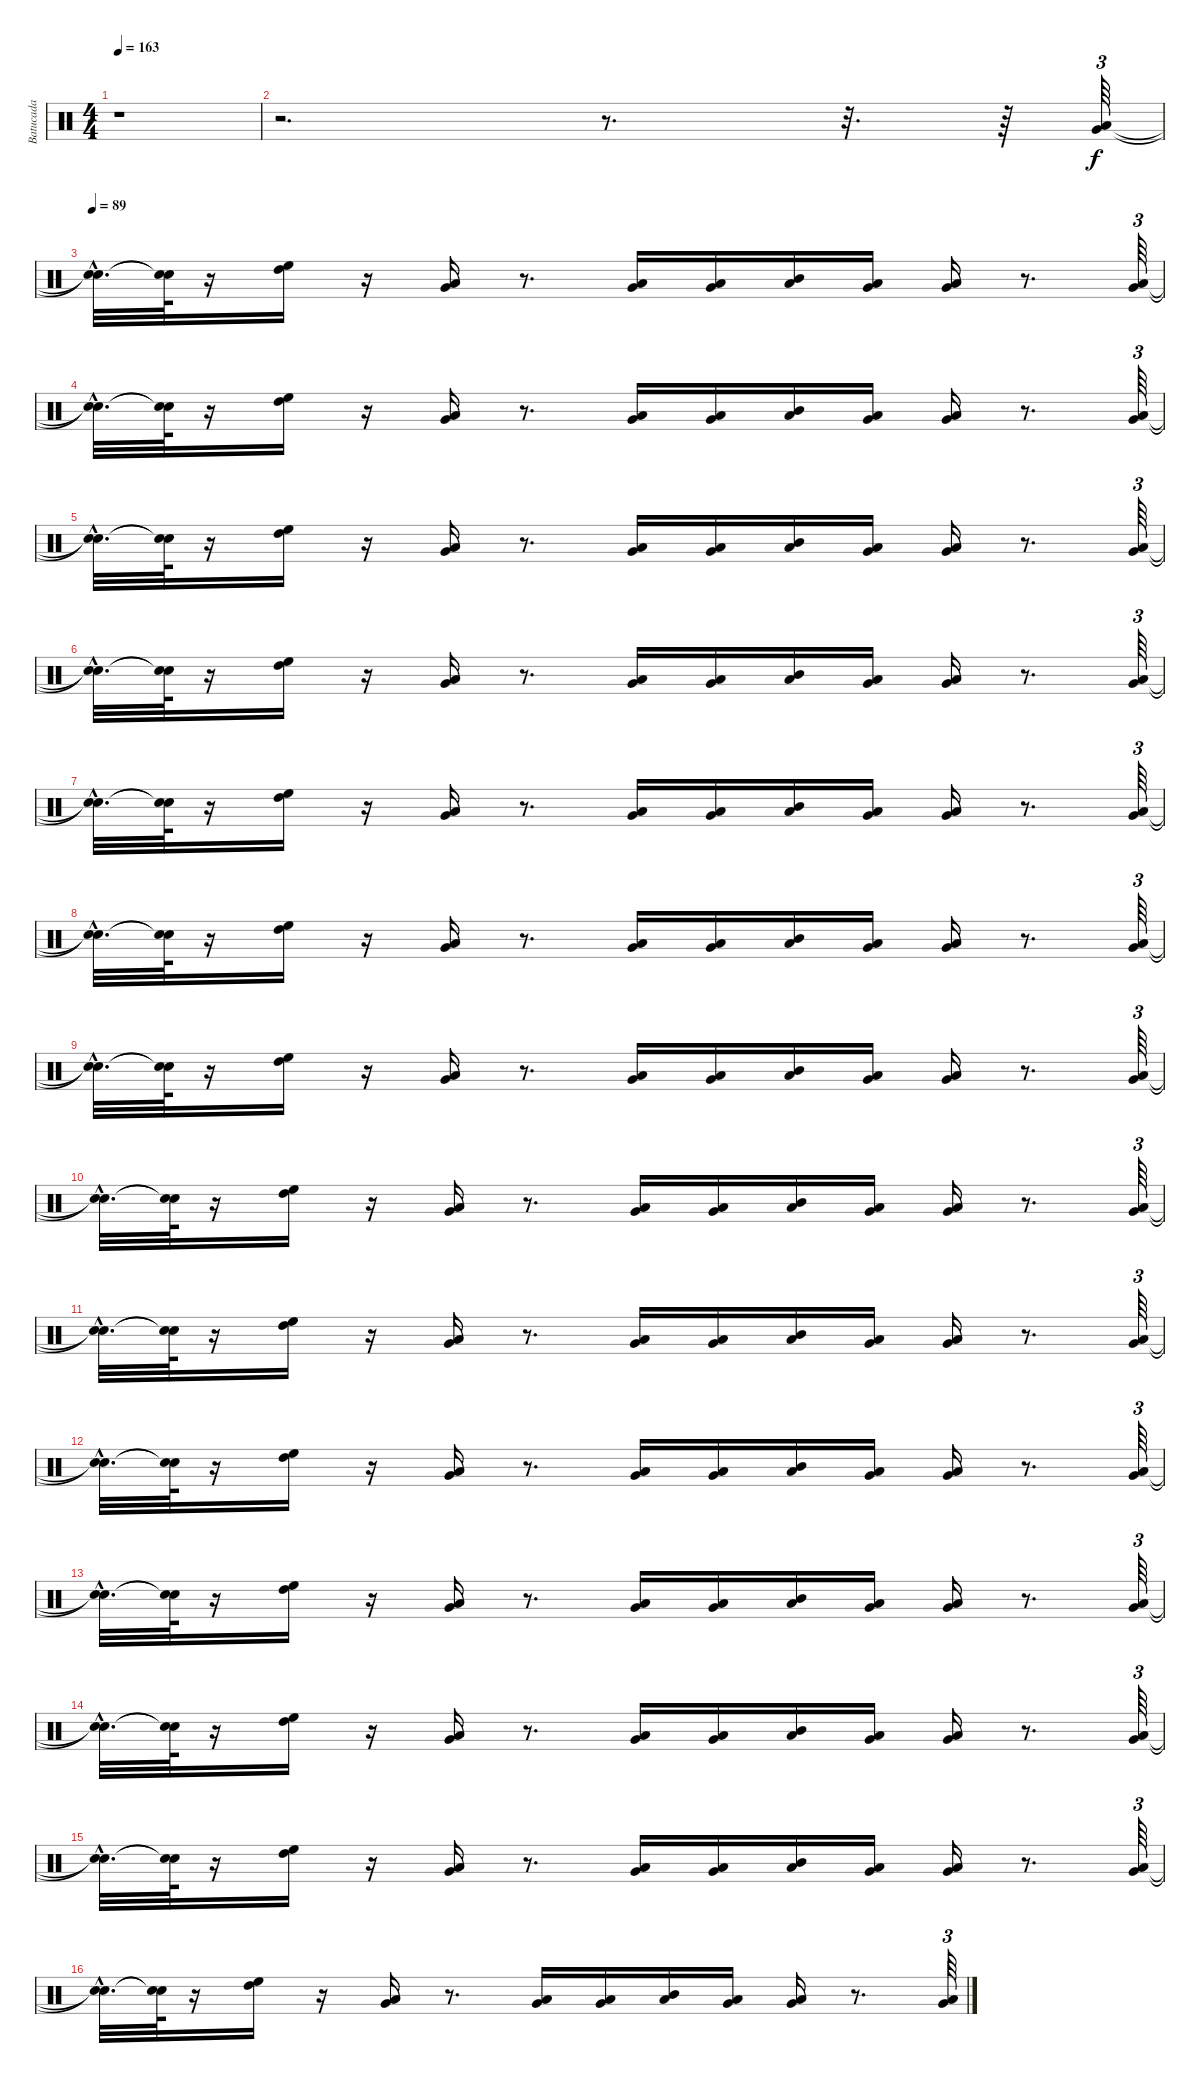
\track ("Batucada" "Batucada") {instrument percussion}
\staff {score}
\articulation defaults
\ts (4 4)
\tempo 163
\clef neutral
\ks c
r.1{dy f} |
r.2{d} r.8{d} r.32{d} r.64 ("Very Low Tom (hit)" "Low Floor Tom (hit)").64{tu (3 2)} |
\tempo 89
("Snare (hit)"{hac t} "Snare (hit)"{hac t}).32{d} ("Snare (hit)"{t} "Snare (hit)"{t}).64 r.16 ("High Floor Tom (hit)" "High Tom (hit)").16 r.16 ("Very Low Tom (hit)" "Low Floor Tom (hit)").16 r.8{d} ("Very Low Tom (hit)" "Low Floor Tom (hit)").16 ("Very Low Tom (hit)" "Low Floor Tom (hit)").16 ("Mid Tom (hit)" "Low Floor Tom (hit)").16 ("Very Low Tom (hit)" "Low Floor Tom (hit)").16 ("Very Low Tom (hit)" "Low Floor Tom (hit)").16 r.8{d} ("Very Low Tom (hit)" "Low Floor Tom (hit)").64{tu (3 2)} |
("Snare (hit)"{hac t} "Snare (hit)"{hac t}).32{d} ("Snare (hit)"{t} "Snare (hit)"{t}).64 r.16 ("High Floor Tom (hit)" "High Tom (hit)").16 r.16 ("Very Low Tom (hit)" "Low Floor Tom (hit)").16 r.8{d} ("Very Low Tom (hit)" "Low Floor Tom (hit)").16 ("Very Low Tom (hit)" "Low Floor Tom (hit)").16 ("Mid Tom (hit)" "Low Floor Tom (hit)").16 ("Very Low Tom (hit)" "Low Floor Tom (hit)").16 ("Very Low Tom (hit)" "Low Floor Tom (hit)").16 r.8{d} ("Very Low Tom (hit)" "Low Floor Tom (hit)").64{tu (3 2)} |
("Snare (hit)"{hac t} "Snare (hit)"{hac t}).32{d} ("Snare (hit)"{t} "Snare (hit)"{t}).64 r.16 ("High Floor Tom (hit)" "High Tom (hit)").16 r.16 ("Very Low Tom (hit)" "Low Floor Tom (hit)").16 r.8{d} ("Very Low Tom (hit)" "Low Floor Tom (hit)").16 ("Very Low Tom (hit)" "Low Floor Tom (hit)").16 ("Mid Tom (hit)" "Low Floor Tom (hit)").16 ("Very Low Tom (hit)" "Low Floor Tom (hit)").16 ("Very Low Tom (hit)" "Low Floor Tom (hit)").16 r.8{d} ("Very Low Tom (hit)" "Low Floor Tom (hit)").64{tu (3 2)} |
("Snare (hit)"{hac t} "Snare (hit)"{hac t}).32{d} ("Snare (hit)"{t} "Snare (hit)"{t}).64 r.16 ("High Floor Tom (hit)" "High Tom (hit)").16 r.16 ("Very Low Tom (hit)" "Low Floor Tom (hit)").16 r.8{d} ("Very Low Tom (hit)" "Low Floor Tom (hit)").16 ("Very Low Tom (hit)" "Low Floor Tom (hit)").16 ("Mid Tom (hit)" "Low Floor Tom (hit)").16 ("Very Low Tom (hit)" "Low Floor Tom (hit)").16 ("Very Low Tom (hit)" "Low Floor Tom (hit)").16 r.8{d} ("Very Low Tom (hit)" "Low Floor Tom (hit)").64{tu (3 2)} |
("Snare (hit)"{hac t} "Snare (hit)"{hac t}).32{d} ("Snare (hit)"{t} "Snare (hit)"{t}).64 r.16 ("High Floor Tom (hit)" "High Tom (hit)").16 r.16 ("Very Low Tom (hit)" "Low Floor Tom (hit)").16 r.8{d} ("Very Low Tom (hit)" "Low Floor Tom (hit)").16 ("Very Low Tom (hit)" "Low Floor Tom (hit)").16 ("Mid Tom (hit)" "Low Floor Tom (hit)").16 ("Very Low Tom (hit)" "Low Floor Tom (hit)").16 ("Very Low Tom (hit)" "Low Floor Tom (hit)").16 r.8{d} ("Very Low Tom (hit)" "Low Floor Tom (hit)").64{tu (3 2)} |
("Snare (hit)"{hac t} "Snare (hit)"{hac t}).32{d} ("Snare (hit)"{t} "Snare (hit)"{t}).64 r.16 ("High Floor Tom (hit)" "High Tom (hit)").16 r.16 ("Very Low Tom (hit)" "Low Floor Tom (hit)").16 r.8{d} ("Very Low Tom (hit)" "Low Floor Tom (hit)").16 ("Very Low Tom (hit)" "Low Floor Tom (hit)").16 ("Mid Tom (hit)" "Low Floor Tom (hit)").16 ("Very Low Tom (hit)" "Low Floor Tom (hit)").16 ("Very Low Tom (hit)" "Low Floor Tom (hit)").16 r.8{d} ("Very Low Tom (hit)" "Low Floor Tom (hit)").64{tu (3 2)} |
("Snare (hit)"{hac t} "Snare (hit)"{hac t}).32{d} ("Snare (hit)"{t} "Snare (hit)"{t}).64 r.16 ("High Floor Tom (hit)" "High Tom (hit)").16 r.16 ("Very Low Tom (hit)" "Low Floor Tom (hit)").16 r.8{d} ("Very Low Tom (hit)" "Low Floor Tom (hit)").16 ("Very Low Tom (hit)" "Low Floor Tom (hit)").16 ("Mid Tom (hit)" "Low Floor Tom (hit)").16 ("Very Low Tom (hit)" "Low Floor Tom (hit)").16 ("Very Low Tom (hit)" "Low Floor Tom (hit)").16 r.8{d} ("Very Low Tom (hit)" "Low Floor Tom (hit)").64{tu (3 2)} |
("Snare (hit)"{hac t} "Snare (hit)"{hac t}).32{d} ("Snare (hit)"{t} "Snare (hit)"{t}).64 r.16 ("High Floor Tom (hit)" "High Tom (hit)").16 r.16 ("Very Low Tom (hit)" "Low Floor Tom (hit)").16 r.8{d} ("Very Low Tom (hit)" "Low Floor Tom (hit)").16 ("Very Low Tom (hit)" "Low Floor Tom (hit)").16 ("Mid Tom (hit)" "Low Floor Tom (hit)").16 ("Very Low Tom (hit)" "Low Floor Tom (hit)").16 ("Very Low Tom (hit)" "Low Floor Tom (hit)").16 r.8{d} ("Very Low Tom (hit)" "Low Floor Tom (hit)").64{tu (3 2)} |
("Snare (hit)"{hac t} "Snare (hit)"{hac t}).32{d} ("Snare (hit)"{t} "Snare (hit)"{t}).64 r.16 ("High Floor Tom (hit)" "High Tom (hit)").16 r.16 ("Very Low Tom (hit)" "Low Floor Tom (hit)").16 r.8{d} ("Very Low Tom (hit)" "Low Floor Tom (hit)").16 ("Very Low Tom (hit)" "Low Floor Tom (hit)").16 ("Mid Tom (hit)" "Low Floor Tom (hit)").16 ("Very Low Tom (hit)" "Low Floor Tom (hit)").16 ("Very Low Tom (hit)" "Low Floor Tom (hit)").16 r.8{d} ("Very Low Tom (hit)" "Low Floor Tom (hit)").64{tu (3 2)} |
("Snare (hit)"{hac t} "Snare (hit)"{hac t}).32{d} ("Snare (hit)"{t} "Snare (hit)"{t}).64 r.16 ("High Floor Tom (hit)" "High Tom (hit)").16 r.16 ("Very Low Tom (hit)" "Low Floor Tom (hit)").16 r.8{d} ("Very Low Tom (hit)" "Low Floor Tom (hit)").16 ("Very Low Tom (hit)" "Low Floor Tom (hit)").16 ("Mid Tom (hit)" "Low Floor Tom (hit)").16 ("Very Low Tom (hit)" "Low Floor Tom (hit)").16 ("Very Low Tom (hit)" "Low Floor Tom (hit)").16 r.8{d} ("Very Low Tom (hit)" "Low Floor Tom (hit)").64{tu (3 2)} |
("Snare (hit)"{hac t} "Snare (hit)"{hac t}).32{d} ("Snare (hit)"{t} "Snare (hit)"{t}).64 r.16 ("High Floor Tom (hit)" "High Tom (hit)").16 r.16 ("Very Low Tom (hit)" "Low Floor Tom (hit)").16 r.8{d} ("Very Low Tom (hit)" "Low Floor Tom (hit)").16 ("Very Low Tom (hit)" "Low Floor Tom (hit)").16 ("Mid Tom (hit)" "Low Floor Tom (hit)").16 ("Very Low Tom (hit)" "Low Floor Tom (hit)").16 ("Very Low Tom (hit)" "Low Floor Tom (hit)").16 r.8{d} ("Very Low Tom (hit)" "Low Floor Tom (hit)").64{tu (3 2)} |
("Snare (hit)"{hac t} "Snare (hit)"{hac t}).32{d} ("Snare (hit)"{t} "Snare (hit)"{t}).64 r.16 ("High Floor Tom (hit)" "High Tom (hit)").16 r.16 ("Very Low Tom (hit)" "Low Floor Tom (hit)").16 r.8{d} ("Very Low Tom (hit)" "Low Floor Tom (hit)").16 ("Very Low Tom (hit)" "Low Floor Tom (hit)").16 ("Mid Tom (hit)" "Low Floor Tom (hit)").16 ("Very Low Tom (hit)" "Low Floor Tom (hit)").16 ("Very Low Tom (hit)" "Low Floor Tom (hit)").16 r.8{d} ("Very Low Tom (hit)" "Low Floor Tom (hit)").64{tu (3 2)} |
("Snare (hit)"{hac t} "Snare (hit)"{hac t}).32{d} ("Snare (hit)"{t} "Snare (hit)"{t}).64 r.16 ("High Floor Tom (hit)" "High Tom (hit)").16 r.16 ("Very Low Tom (hit)" "Low Floor Tom (hit)").16 r.8{d} ("Very Low Tom (hit)" "Low Floor Tom (hit)").16 ("Very Low Tom (hit)" "Low Floor Tom (hit)").16 ("Mid Tom (hit)" "Low Floor Tom (hit)").16 ("Very Low Tom (hit)" "Low Floor Tom (hit)").16 ("Very Low Tom (hit)" "Low Floor Tom (hit)").16 r.8{d} ("Very Low Tom (hit)" "Low Floor Tom (hit)").64{tu (3 2)} |
("Snare (hit)"{hac t} "Snare (hit)"{hac t}).32{d} ("Snare (hit)"{t} "Snare (hit)"{t}).64 r.16 ("High Floor Tom (hit)" "High Tom (hit)").16 r.16 ("Very Low Tom (hit)" "Low Floor Tom (hit)").16 r.8{d} ("Very Low Tom (hit)" "Low Floor Tom (hit)").16 ("Very Low Tom (hit)" "Low Floor Tom (hit)").16 ("Mid Tom (hit)" "Low Floor Tom (hit)").16 ("Very Low Tom (hit)" "Low Floor Tom (hit)").16 ("Very Low Tom (hit)" "Low Floor Tom (hit)").16 r.8{d} ("Very Low Tom (hit)" "Low Floor Tom (hit)").64{tu (3 2)}
